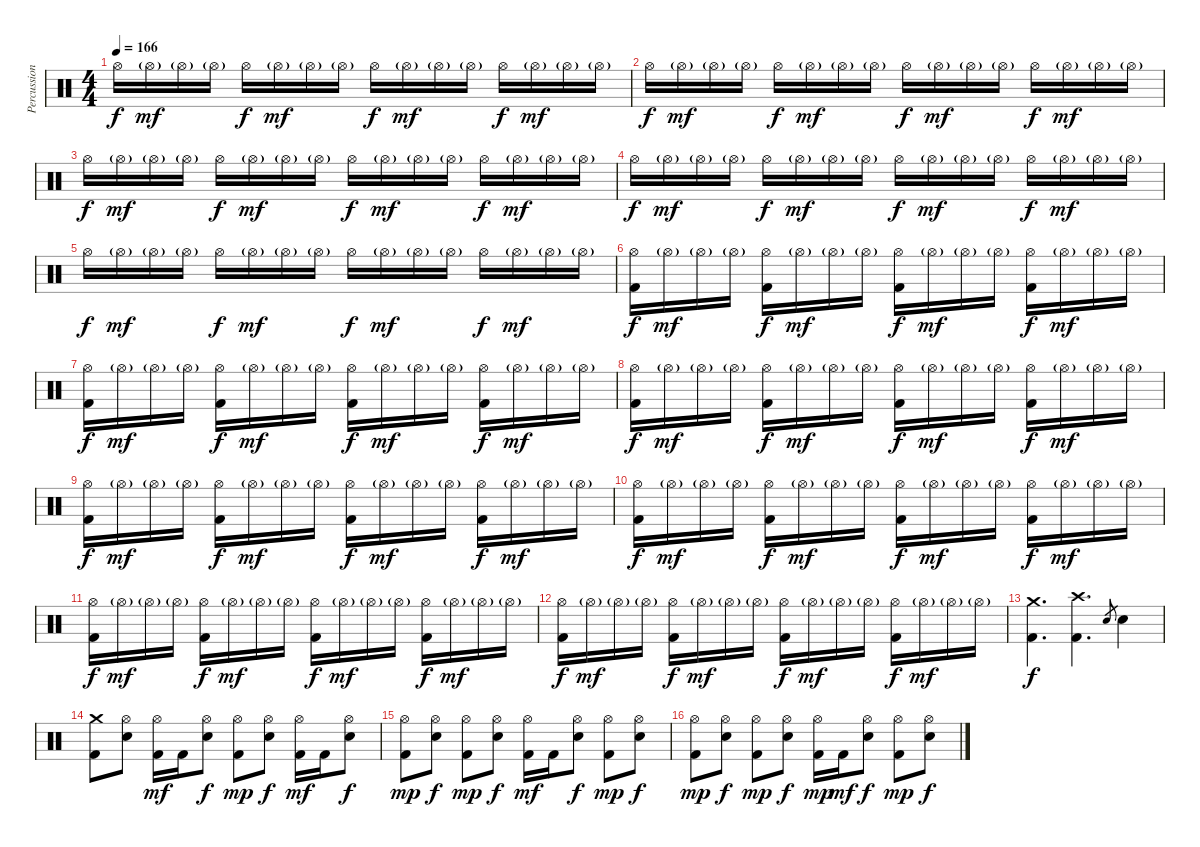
\track ("Percussion" "Percussion") {instrument percussion}
\staff {score}
\articulation defaults
\ts (4 4)
\tempo 166
\clef neutral
\ks c "Hi-Hat (open)".16{dy f} "Hi-Hat (open)"{g}.16{dy mf} "Hi-Hat (open)"{g}.16 "Hi-Hat (open)"{g}.16 "Hi-Hat (open)".16{dy f} "Hi-Hat (open)"{g}.16{dy mf} "Hi-Hat (open)"{g}.16 "Hi-Hat (open)"{g}.16 "Hi-Hat (open)".16{dy f} "Hi-Hat (open)"{g}.16{dy mf} "Hi-Hat (open)"{g}.16 "Hi-Hat (open)"{g}.16 "Hi-Hat (open)".16{dy f} "Hi-Hat (open)"{g}.16{dy mf} "Hi-Hat (open)"{g}.16 "Hi-Hat (open)"{g}.16
|
"Hi-Hat (open)".16{dy f} "Hi-Hat (open)"{g}.16{dy mf} "Hi-Hat (open)"{g}.16 "Hi-Hat (open)"{g}.16 "Hi-Hat (open)".16{dy f} "Hi-Hat (open)"{g}.16{dy mf} "Hi-Hat (open)"{g}.16 "Hi-Hat (open)"{g}.16 "Hi-Hat (open)".16{dy f} "Hi-Hat (open)"{g}.16{dy mf} "Hi-Hat (open)"{g}.16 "Hi-Hat (open)"{g}.16 "Hi-Hat (open)".16{dy f} "Hi-Hat (open)"{g}.16{dy mf} "Hi-Hat (open)"{g}.16 "Hi-Hat (open)"{g}.16 |
"Hi-Hat (open)".16{dy f} "Hi-Hat (open)"{g}.16{dy mf} "Hi-Hat (open)"{g}.16 "Hi-Hat (open)"{g}.16 "Hi-Hat (open)".16{dy f} "Hi-Hat (open)"{g}.16{dy mf} "Hi-Hat (open)"{g}.16 "Hi-Hat (open)"{g}.16 "Hi-Hat (open)".16{dy f} "Hi-Hat (open)"{g}.16{dy mf} "Hi-Hat (open)"{g}.16 "Hi-Hat (open)"{g}.16 "Hi-Hat (open)".16{dy f} "Hi-Hat (open)"{g}.16{dy mf} "Hi-Hat (open)"{g}.16 "Hi-Hat (open)"{g}.16 |
"Hi-Hat (open)".16{dy f} "Hi-Hat (open)"{g}.16{dy mf} "Hi-Hat (open)"{g}.16 "Hi-Hat (open)"{g}.16 "Hi-Hat (open)".16{dy f} "Hi-Hat (open)"{g}.16{dy mf} "Hi-Hat (open)"{g}.16 "Hi-Hat (open)"{g}.16 "Hi-Hat (open)".16{dy f} "Hi-Hat (open)"{g}.16{dy mf} "Hi-Hat (open)"{g}.16 "Hi-Hat (open)"{g}.16 "Hi-Hat (open)".16{dy f} "Hi-Hat (open)"{g}.16{dy mf} "Hi-Hat (open)"{g}.16 "Hi-Hat (open)"{g}.16 |
"Hi-Hat (open)".16{dy f} "Hi-Hat (open)"{g}.16{dy mf} "Hi-Hat (open)"{g}.16 "Hi-Hat (open)"{g}.16 "Hi-Hat (open)".16{dy f} "Hi-Hat (open)"{g}.16{dy mf} "Hi-Hat (open)"{g}.16 "Hi-Hat (open)"{g}.16 "Hi-Hat (open)".16{dy f} "Hi-Hat (open)"{g}.16{dy mf} "Hi-Hat (open)"{g}.16 "Hi-Hat (open)"{g}.16 "Hi-Hat (open)".16{dy f} "Hi-Hat (open)"{g}.16{dy mf} "Hi-Hat (open)"{g}.16 "Hi-Hat (open)"{g}.16 |
("Hi-Hat (open)" "Kick (hit) 2").16{dy f} "Hi-Hat (open)"{g}.16{dy mf} "Hi-Hat (open)"{g}.16 "Hi-Hat (open)"{g}.16 ("Hi-Hat (open)" "Kick (hit) 2").16{dy f} "Hi-Hat (open)"{g}.16{dy mf} "Hi-Hat (open)"{g}.16 "Hi-Hat (open)"{g}.16 ("Hi-Hat (open)" "Kick (hit) 2").16{dy f} "Hi-Hat (open)"{g}.16{dy mf} "Hi-Hat (open)"{g}.16 "Hi-Hat (open)"{g}.16 ("Hi-Hat (open)" "Kick (hit) 2").16{dy f} "Hi-Hat (open)"{g}.16{dy mf} "Hi-Hat (open)"{g}.16 "Hi-Hat (open)"{g}.16 |
("Hi-Hat (open)" "Kick (hit) 2").16{dy f} "Hi-Hat (open)"{g}.16{dy mf} "Hi-Hat (open)"{g}.16 "Hi-Hat (open)"{g}.16 ("Hi-Hat (open)" "Kick (hit) 2").16{dy f} "Hi-Hat (open)"{g}.16{dy mf} "Hi-Hat (open)"{g}.16 "Hi-Hat (open)"{g}.16 ("Hi-Hat (open)" "Kick (hit) 2").16{dy f} "Hi-Hat (open)"{g}.16{dy mf} "Hi-Hat (open)"{g}.16 "Hi-Hat (open)"{g}.16 ("Hi-Hat (open)" "Kick (hit) 2").16{dy f} "Hi-Hat (open)"{g}.16{dy mf} "Hi-Hat (open)"{g}.16 "Hi-Hat (open)"{g}.16 |
("Hi-Hat (open)" "Kick (hit) 2").16{dy f} "Hi-Hat (open)"{g}.16{dy mf} "Hi-Hat (open)"{g}.16 "Hi-Hat (open)"{g}.16 ("Hi-Hat (open)" "Kick (hit) 2").16{dy f} "Hi-Hat (open)"{g}.16{dy mf} "Hi-Hat (open)"{g}.16 "Hi-Hat (open)"{g}.16 ("Hi-Hat (open)" "Kick (hit) 2").16{dy f} "Hi-Hat (open)"{g}.16{dy mf} "Hi-Hat (open)"{g}.16 "Hi-Hat (open)"{g}.16 ("Hi-Hat (open)" "Kick (hit) 2").16{dy f} "Hi-Hat (open)"{g}.16{dy mf} "Hi-Hat (open)"{g}.16 "Hi-Hat (open)"{g}.16 |
("Hi-Hat (open)" "Kick (hit) 2").16{dy f} "Hi-Hat (open)"{g}.16{dy mf} "Hi-Hat (open)"{g}.16 "Hi-Hat (open)"{g}.16 ("Hi-Hat (open)" "Kick (hit) 2").16{dy f} "Hi-Hat (open)"{g}.16{dy mf} "Hi-Hat (open)"{g}.16 "Hi-Hat (open)"{g}.16 ("Hi-Hat (open)" "Kick (hit) 2").16{dy f} "Hi-Hat (open)"{g}.16{dy mf} "Hi-Hat (open)"{g}.16 "Hi-Hat (open)"{g}.16 ("Hi-Hat (open)" "Kick (hit) 2").16{dy f} "Hi-Hat (open)"{g}.16{dy mf} "Hi-Hat (open)"{g}.16 "Hi-Hat (open)"{g}.16 |
("Hi-Hat (open)" "Kick (hit) 2").16{dy f} "Hi-Hat (open)"{g}.16{dy mf} "Hi-Hat (open)"{g}.16 "Hi-Hat (open)"{g}.16 ("Hi-Hat (open)" "Kick (hit) 2").16{dy f} "Hi-Hat (open)"{g}.16{dy mf} "Hi-Hat (open)"{g}.16 "Hi-Hat (open)"{g}.16 ("Hi-Hat (open)" "Kick (hit) 2").16{dy f} "Hi-Hat (open)"{g}.16{dy mf} "Hi-Hat (open)"{g}.16 "Hi-Hat (open)"{g}.16 ("Hi-Hat (open)" "Kick (hit) 2").16{dy f} "Hi-Hat (open)"{g}.16{dy mf} "Hi-Hat (open)"{g}.16 "Hi-Hat (open)"{g}.16 |
("Hi-Hat (open)" "Kick (hit) 2").16{dy f} "Hi-Hat (open)"{g}.16{dy mf} "Hi-Hat (open)"{g}.16 "Hi-Hat (open)"{g}.16 ("Hi-Hat (open)" "Kick (hit) 2").16{dy f} "Hi-Hat (open)"{g}.16{dy mf} "Hi-Hat (open)"{g}.16 "Hi-Hat (open)"{g}.16 ("Hi-Hat (open)" "Kick (hit) 2").16{dy f} "Hi-Hat (open)"{g}.16{dy mf} "Hi-Hat (open)"{g}.16 "Hi-Hat (open)"{g}.16 ("Hi-Hat (open)" "Kick (hit) 2").16{dy f} "Hi-Hat (open)"{g}.16{dy mf} "Hi-Hat (open)"{g}.16 "Hi-Hat (open)"{g}.16 |
("Hi-Hat (open)" "Kick (hit) 2").16{dy f} "Hi-Hat (open)"{g}.16{dy mf} "Hi-Hat (open)"{g}.16 "Hi-Hat (open)"{g}.16 ("Hi-Hat (open)" "Kick (hit) 2").16{dy f} "Hi-Hat (open)"{g}.16{dy mf} "Hi-Hat (open)"{g}.16 "Hi-Hat (open)"{g}.16 ("Hi-Hat (open)" "Kick (hit) 2").16{dy f} "Hi-Hat (open)"{g}.16{dy mf} "Hi-Hat (open)"{g}.16 "Hi-Hat (open)"{g}.16 ("Hi-Hat (open)" "Kick (hit) 2").16{dy f} "Hi-Hat (open)"{g}.16{dy mf} "Hi-Hat (open)"{g}.16 "Hi-Hat (open)"{g}.16 |
("Crash medium (hit)" "Kick (hit) 2").4{d dy f} ("Crash high (hit)" "Kick (hit) 2").4{d} "Electric Snare (hit)".8{gr} "Electric Snare (hit)".4 |
("Crash medium (hit)" "Kick (hit) 2").8 ("Hi-Hat (open)" "Electric Snare (hit)").8 ("Hi-Hat (open)" "Kick (hit) 2").16{dy mf} "Kick (hit) 2".16 ("Hi-Hat (open)" "Electric Snare (hit)").8{dy f} ("Hi-Hat (open)" "Kick (hit) 2").8{dy mp} ("Hi-Hat (open)" "Electric Snare (hit)").8{dy f} ("Hi-Hat (open)" "Kick (hit) 2").16{dy mf} "Kick (hit) 2".16 ("Hi-Hat (open)" "Electric Snare (hit)").8{dy f} |
("Hi-Hat (open)" "Kick (hit) 2").8{dy mp} ("Hi-Hat (open)" "Electric Snare (hit)").8{dy f} ("Hi-Hat (open)" "Kick (hit) 2").8{dy mp} ("Hi-Hat (open)" "Electric Snare (hit)").8{dy f} ("Hi-Hat (open)" "Kick (hit) 2").16{dy mf} "Kick (hit) 2".16 ("Hi-Hat (open)" "Electric Snare (hit)").8{dy f} ("Hi-Hat (open)" "Kick (hit) 2").8{dy mp} ("Hi-Hat (open)" "Electric Snare (hit)").8{dy f} |
("Hi-Hat (open)" "Kick (hit) 2").8{dy mp} ("Hi-Hat (open)" "Electric Snare (hit)").8{dy f} ("Hi-Hat (open)" "Kick (hit) 2").8{dy mp} ("Hi-Hat (open)" "Electric Snare (hit)").8{dy f} ("Hi-Hat (open)" "Kick (hit) 2").16{dy mp} "Kick (hit) 2".16{dy mf} ("Hi-Hat (open)" "Electric Snare (hit)").8{dy f} ("Hi-Hat (open)" "Kick (hit) 2").8{dy mp} ("Hi-Hat (open)" "Electric Snare (hit)").8{dy f}
